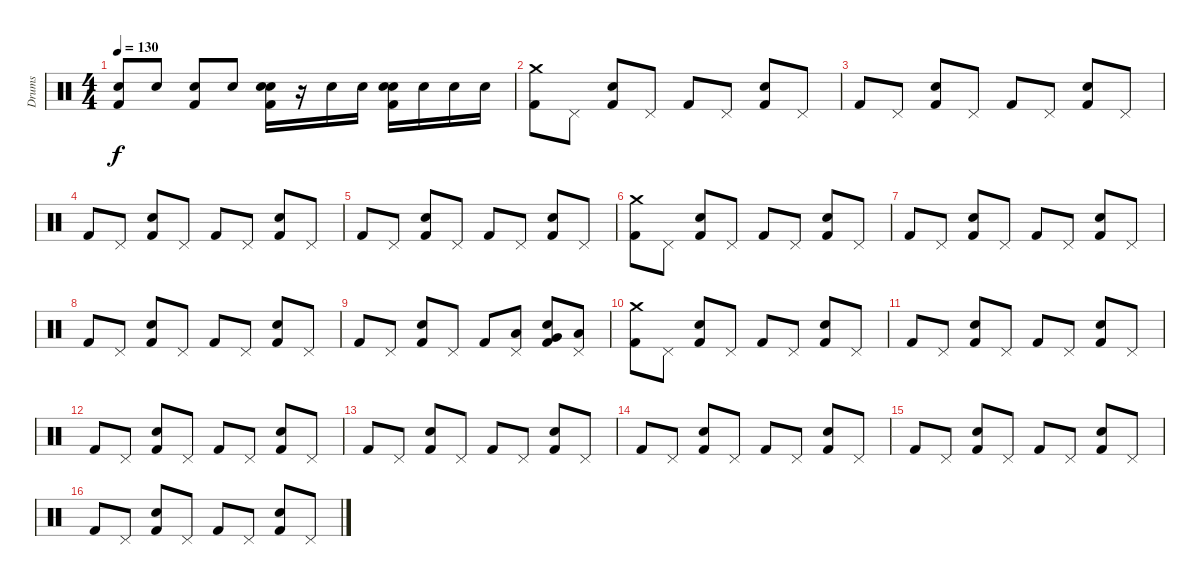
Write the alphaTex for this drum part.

\track ("Drums" "Drums") {instrument percussion}
\staff {score}
\articulation defaults
\ts (4 4)
\tempo 130
\clef neutral
\ks c
("Snare (hit) 2" "Kick (hit) 2").8{dy f} "Snare (hit) 2".8 ("Snare (hit) 2" "Kick (hit) 2").8 "Snare (hit) 2".8 ("Electric Snare (hit)" "Snare (hit) 2" "Kick (hit) 2").16 r.16 "Electric Snare (hit)".16 "Electric Snare (hit)".16 ("Electric Snare (hit)" "Snare (hit) 2" "Kick (hit) 2").16 "Electric Snare (hit)".16 "Electric Snare (hit)".16 "Electric Snare (hit)".16 |
("Crash medium (hit)" "Kick (hit) 2").8 "Pedal Hi-Hat (hit)".8 ("Snare (hit) 2" "Kick (hit) 2").8 "Pedal Hi-Hat (hit)".8 "Kick (hit) 2".8 "Pedal Hi-Hat (hit)".8 ("Snare (hit) 2" "Kick (hit) 2").8 "Pedal Hi-Hat (hit)".8 |
"Kick (hit) 2".8 "Pedal Hi-Hat (hit)".8 ("Snare (hit) 2" "Kick (hit) 2").8 "Pedal Hi-Hat (hit)".8 "Kick (hit) 2".8 "Pedal Hi-Hat (hit)".8 ("Snare (hit) 2" "Kick (hit) 2").8 "Pedal Hi-Hat (hit)".8 |
"Kick (hit) 2".8 "Pedal Hi-Hat (hit)".8 ("Snare (hit) 2" "Kick (hit) 2").8 "Pedal Hi-Hat (hit)".8 "Kick (hit) 2".8 "Pedal Hi-Hat (hit)".8 ("Snare (hit) 2" "Kick (hit) 2").8 "Pedal Hi-Hat (hit)".8 |
"Kick (hit) 2".8 "Pedal Hi-Hat (hit)".8 ("Snare (hit) 2" "Kick (hit) 2").8 "Pedal Hi-Hat (hit)".8 "Kick (hit) 2".8 "Pedal Hi-Hat (hit)".8 ("Snare (hit) 2" "Kick (hit) 2").8 "Pedal Hi-Hat (hit)".8 |
("Kick (hit) 2" "Crash medium (hit)").8 "Pedal Hi-Hat (hit)".8 ("Snare (hit) 2" "Kick (hit) 2").8 "Pedal Hi-Hat (hit)".8 "Kick (hit) 2".8 "Pedal Hi-Hat (hit)".8 ("Snare (hit) 2" "Kick (hit) 2").8 "Pedal Hi-Hat (hit)".8 |
"Kick (hit) 2".8 "Pedal Hi-Hat (hit)".8 ("Snare (hit) 2" "Kick (hit) 2").8 "Pedal Hi-Hat (hit)".8 "Kick (hit) 2".8 "Pedal Hi-Hat (hit)".8 ("Snare (hit) 2" "Kick (hit) 2").8 "Pedal Hi-Hat (hit)".8 |
"Kick (hit) 2".8 "Pedal Hi-Hat (hit)".8 ("Snare (hit) 2" "Kick (hit) 2").8 "Pedal Hi-Hat (hit)".8 "Kick (hit) 2".8 "Pedal Hi-Hat (hit)".8 ("Snare (hit) 2" "Kick (hit) 2").8 "Pedal Hi-Hat (hit)".8 |
"Kick (hit) 2".8 "Pedal Hi-Hat (hit)".8 ("Snare (hit) 2" "Kick (hit) 2").8 "Pedal Hi-Hat (hit)".8 "Kick (hit) 2".8 ("Low Tom (hit)" "Pedal Hi-Hat (hit)").8 ("Very Low Tom (hit)" "Snare (hit) 2" "Kick (hit) 2").8 ("Pedal Hi-Hat (hit)" "Low Floor Tom (hit)").8 |
("Crash medium (hit)" "Kick (hit) 2").8 "Pedal Hi-Hat (hit)".8 ("Snare (hit) 2" "Kick (hit) 2").8 "Pedal Hi-Hat (hit)".8 "Kick (hit) 2".8 "Pedal Hi-Hat (hit)".8 ("Snare (hit) 2" "Kick (hit) 2").8 "Pedal Hi-Hat (hit)".8 |
"Kick (hit) 2".8 "Pedal Hi-Hat (hit)".8 ("Snare (hit) 2" "Kick (hit) 2").8 "Pedal Hi-Hat (hit)".8 "Kick (hit) 2".8 "Pedal Hi-Hat (hit)".8 ("Snare (hit) 2" "Kick (hit) 2").8 "Pedal Hi-Hat (hit)".8 |
"Kick (hit) 2".8 "Pedal Hi-Hat (hit)".8 ("Snare (hit) 2" "Kick (hit) 2").8 "Pedal Hi-Hat (hit)".8 "Kick (hit) 2".8 "Pedal Hi-Hat (hit)".8 ("Snare (hit) 2" "Kick (hit) 2").8 "Pedal Hi-Hat (hit)".8 |
"Kick (hit) 2".8 "Pedal Hi-Hat (hit)".8 ("Snare (hit) 2" "Kick (hit) 2").8 "Pedal Hi-Hat (hit)".8 "Kick (hit) 2".8 "Pedal Hi-Hat (hit)".8 ("Snare (hit) 2" "Kick (hit) 2").8 "Pedal Hi-Hat (hit)".8 |
"Kick (hit) 2".8 "Pedal Hi-Hat (hit)".8 ("Snare (hit) 2" "Kick (hit) 2").8 "Pedal Hi-Hat (hit)".8 "Kick (hit) 2".8 "Pedal Hi-Hat (hit)".8 ("Snare (hit) 2" "Kick (hit) 2").8 "Pedal Hi-Hat (hit)".8 |
"Kick (hit) 2".8 "Pedal Hi-Hat (hit)".8 ("Snare (hit) 2" "Kick (hit) 2").8 "Pedal Hi-Hat (hit)".8 "Kick (hit) 2".8 "Pedal Hi-Hat (hit)".8 ("Snare (hit) 2" "Kick (hit) 2").8 "Pedal Hi-Hat (hit)".8 |
"Kick (hit) 2".8 "Pedal Hi-Hat (hit)".8 ("Snare (hit) 2" "Kick (hit) 2").8 "Pedal Hi-Hat (hit)".8 "Kick (hit) 2".8 "Pedal Hi-Hat (hit)".8 ("Snare (hit) 2" "Kick (hit) 2").8 "Pedal Hi-Hat (hit)".8
